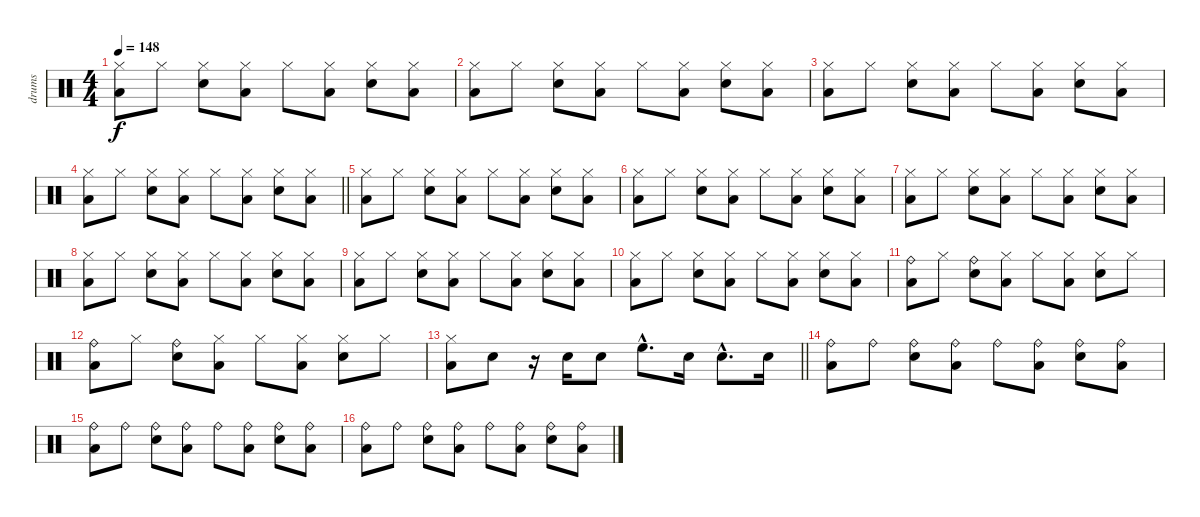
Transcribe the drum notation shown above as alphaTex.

\track ("drums" "drums") {instrument percussion}
\staff {score}
\articulation defaults
\ts (4 4)
\tempo 148
\clef neutral
\ks c
("Hi-Hat (closed)" "Low Floor Tom (hit)").8{dy f} "Hi-Hat (closed)".8 ("Hi-Hat (closed)" "Electric Snare (hit)").8 ("Hi-Hat (closed)" "Low Floor Tom (hit)").8 "Hi-Hat (closed)".8 ("Hi-Hat (closed)" "Low Floor Tom (hit)").8 ("Hi-Hat (closed)" "Electric Snare (hit)").8 ("Hi-Hat (closed)" "Low Floor Tom (hit)").8 |
("Hi-Hat (closed)" "Low Floor Tom (hit)").8 "Hi-Hat (closed)".8 ("Hi-Hat (closed)" "Electric Snare (hit)").8 ("Hi-Hat (closed)" "Low Floor Tom (hit)").8 "Hi-Hat (closed)".8 ("Hi-Hat (closed)" "Low Floor Tom (hit)").8 ("Hi-Hat (closed)" "Electric Snare (hit)").8 ("Hi-Hat (closed)" "Low Floor Tom (hit)").8 |
("Hi-Hat (closed)" "Low Floor Tom (hit)").8 "Hi-Hat (closed)".8 ("Hi-Hat (closed)" "Electric Snare (hit)").8 ("Hi-Hat (closed)" "Low Floor Tom (hit)").8 "Hi-Hat (closed)".8 ("Hi-Hat (closed)" "Low Floor Tom (hit)").8 ("Hi-Hat (closed)" "Electric Snare (hit)").8 ("Hi-Hat (closed)" "Low Floor Tom (hit)").8 |
\barLineRight lightlight
("Hi-Hat (closed)" "Low Floor Tom (hit)").8 "Hi-Hat (closed)".8 ("Hi-Hat (closed)" "Electric Snare (hit)").8 ("Hi-Hat (closed)" "Low Floor Tom (hit)").8 "Hi-Hat (closed)".8 ("Hi-Hat (closed)" "Low Floor Tom (hit)").8 ("Hi-Hat (closed)" "Electric Snare (hit)").8 ("Hi-Hat (closed)" "Low Floor Tom (hit)").8 |
("Hi-Hat (closed)" "Low Floor Tom (hit)").8 "Hi-Hat (closed)".8 ("Hi-Hat (closed)" "Electric Snare (hit)").8 ("Hi-Hat (closed)" "Low Floor Tom (hit)").8 "Hi-Hat (closed)".8 ("Hi-Hat (closed)" "Low Floor Tom (hit)").8 ("Hi-Hat (closed)" "Electric Snare (hit)").8 ("Hi-Hat (closed)" "Low Floor Tom (hit)").8 |
("Hi-Hat (closed)" "Low Floor Tom (hit)").8 "Hi-Hat (closed)".8 ("Hi-Hat (closed)" "Electric Snare (hit)").8 ("Hi-Hat (closed)" "Low Floor Tom (hit)").8 "Hi-Hat (closed)".8 ("Hi-Hat (closed)" "Low Floor Tom (hit)").8 ("Hi-Hat (closed)" "Electric Snare (hit)").8 ("Hi-Hat (closed)" "Low Floor Tom (hit)").8 |
("Hi-Hat (closed)" "Low Floor Tom (hit)").8 "Hi-Hat (closed)".8 ("Hi-Hat (closed)" "Electric Snare (hit)").8 ("Hi-Hat (closed)" "Low Floor Tom (hit)").8 "Hi-Hat (closed)".8 ("Hi-Hat (closed)" "Low Floor Tom (hit)").8 ("Hi-Hat (closed)" "Electric Snare (hit)").8 ("Hi-Hat (closed)" "Low Floor Tom (hit)").8 |
("Hi-Hat (closed)" "Low Floor Tom (hit)").8 "Hi-Hat (closed)".8 ("Hi-Hat (closed)" "Electric Snare (hit)").8 ("Hi-Hat (closed)" "Low Floor Tom (hit)").8 "Hi-Hat (closed)".8 ("Hi-Hat (closed)" "Low Floor Tom (hit)").8 ("Hi-Hat (closed)" "Electric Snare (hit)").8 ("Hi-Hat (closed)" "Low Floor Tom (hit)").8 |
("Hi-Hat (closed)" "Low Floor Tom (hit)").8 "Hi-Hat (closed)".8 ("Hi-Hat (closed)" "Electric Snare (hit)").8 ("Hi-Hat (closed)" "Low Floor Tom (hit)").8 "Hi-Hat (closed)".8 ("Hi-Hat (closed)" "Low Floor Tom (hit)").8 ("Hi-Hat (closed)" "Electric Snare (hit)").8 ("Hi-Hat (closed)" "Low Floor Tom (hit)").8 |
("Hi-Hat (closed)" "Low Floor Tom (hit)").8 "Hi-Hat (closed)".8 ("Hi-Hat (closed)" "Electric Snare (hit)").8 ("Hi-Hat (closed)" "Low Floor Tom (hit)").8 "Hi-Hat (closed)".8 ("Hi-Hat (closed)" "Low Floor Tom (hit)").8 ("Hi-Hat (closed)" "Electric Snare (hit)").8 ("Hi-Hat (closed)" "Low Floor Tom (hit)").8 |
("Ride (bell)" "Low Floor Tom (hit)").8 "Hi-Hat (closed)".8 ("Ride (bell)" "Electric Snare (hit)").8 ("Hi-Hat (closed)" "Low Floor Tom (hit)").8 "Hi-Hat (closed)".8 ("Hi-Hat (closed)" "Low Floor Tom (hit)").8 ("Hi-Hat (closed)" "Electric Snare (hit)").8 "Hi-Hat (closed)".8 |
("Ride (bell)" "Low Floor Tom (hit)").8 "Hi-Hat (closed)".8 ("Ride (bell)" "Electric Snare (hit)").8 ("Hi-Hat (closed)" "Low Floor Tom (hit)").8 "Hi-Hat (closed)".8 ("Hi-Hat (closed)" "Low Floor Tom (hit)").8 ("Hi-Hat (closed)" "Electric Snare (hit)").8 "Hi-Hat (closed)".8 |
\barLineRight lightlight
("Hi-Hat (closed)" "Low Floor Tom (hit)").8 "Electric Snare (hit)".8 r.16 "Electric Snare (hit)".16 "Electric Snare (hit)".8 "High Floor Tom (hit)"{hac}.8{d} "Electric Snare (hit)".16 "Electric Snare (hit)"{hac}.8{d} "Electric Snare (hit)".16 |
("Ride (bell)" "Low Floor Tom (hit)").8 "Ride (bell)".8 ("Ride (bell)" "Electric Snare (hit)").8 ("Ride (bell)" "Low Floor Tom (hit)").8 "Ride (bell)".8 ("Ride (bell)" "Low Floor Tom (hit)").8 ("Ride (bell)" "Electric Snare (hit)").8 ("Ride (bell)" "Low Floor Tom (hit)").8 |
("Ride (bell)" "Low Floor Tom (hit)").8 "Ride (bell)".8 ("Ride (bell)" "Electric Snare (hit)").8 ("Ride (bell)" "Low Floor Tom (hit)").8 "Ride (bell)".8 ("Ride (bell)" "Low Floor Tom (hit)").8 ("Ride (bell)" "Electric Snare (hit)").8 ("Ride (bell)" "Low Floor Tom (hit)").8 |
("Ride (bell)" "Low Floor Tom (hit)").8 "Ride (bell)".8 ("Ride (bell)" "Electric Snare (hit)").8 ("Ride (bell)" "Low Floor Tom (hit)").8 "Ride (bell)".8 ("Ride (bell)" "Low Floor Tom (hit)").8 ("Ride (bell)" "Electric Snare (hit)").8 ("Ride (bell)" "Low Floor Tom (hit)").8
